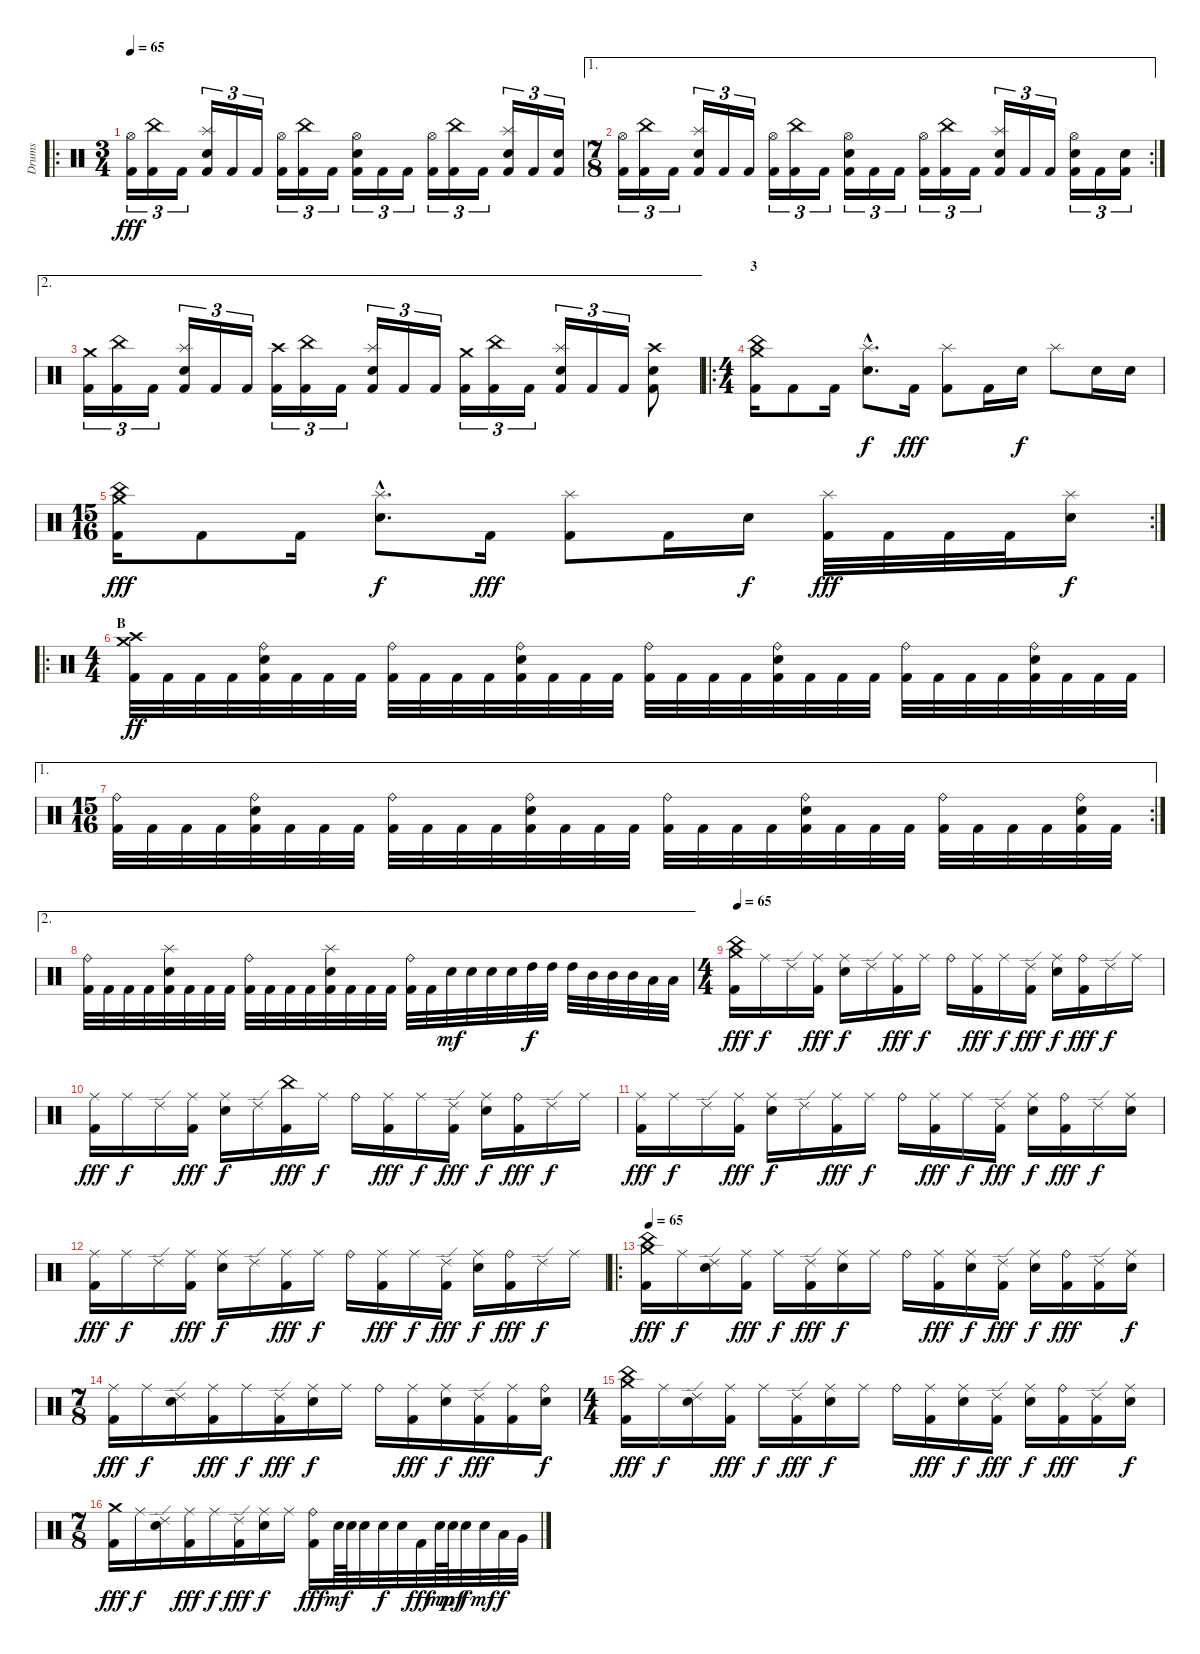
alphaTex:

\track ("Drums" "Drums") {instrument percussion}
\staff {score}
\articulation defaults
\ro
\ts (3 4)
\tempo 65
\clef neutral
\ks c
("Hi-Hat (open)" "Kick (hit) 2").16{tu (3 2) dy fff} ("China (hit)" "Kick (hit) 2").16{tu (3 2)} "Kick (hit) 2".16{tu (3 2)} ("Splash (hit)" "Electric Snare (hit)" "Kick (hit) 2").16{tu (3 2)} "Kick (hit) 2".16{tu (3 2)} "Kick (hit) 2".16{tu (3 2)} ("Hi-Hat (open)" "Kick (hit) 2").16{tu (3 2)} ("China (hit)" "Kick (hit) 2").16{tu (3 2)} "Kick (hit) 2".16{tu (3 2)} ("Hi-Hat (open)" "Electric Snare (hit)" "Kick (hit) 2").16{tu (3 2)} "Kick (hit) 2".16{tu (3 2)} "Kick (hit) 2".16{tu (3 2)} ("Hi-Hat (open)" "Kick (hit) 2").16{tu (3 2)} ("China (hit)" "Kick (hit) 2").16{tu (3 2)} "Kick (hit) 2".16{tu (3 2)} ("Splash (hit)" "Electric Snare (hit)" "Kick (hit) 2").16{tu (3 2)} "Kick (hit) 2".16{tu (3 2)} ("Electric Snare (hit)" "Kick (hit) 2").16{tu (3 2)} |
\ae 1
\rc 2
\ts (7 8)
("Hi-Hat (open)" "Kick (hit) 2").16{tu (3 2)} ("China (hit)" "Kick (hit) 2").16{tu (3 2)} "Kick (hit) 2".16{tu (3 2)} ("Splash (hit)" "Electric Snare (hit)" "Kick (hit) 2").16{tu (3 2)} "Kick (hit) 2".16{tu (3 2)} "Kick (hit) 2".16{tu (3 2)} ("Hi-Hat (open)" "Kick (hit) 2").16{tu (3 2)} ("China (hit)" "Kick (hit) 2").16{tu (3 2)} "Kick (hit) 2".16{tu (3 2)} ("Hi-Hat (open)" "Electric Snare (hit)" "Kick (hit) 2").16{tu (3 2)} "Kick (hit) 2".16{tu (3 2)} "Kick (hit) 2".16{tu (3 2)} ("Hi-Hat (open)" "Kick (hit) 2").16{tu (3 2)} ("China (hit)" "Kick (hit) 2").16{tu (3 2)} "Kick (hit) 2".16{tu (3 2)} ("Splash (hit)" "Electric Snare (hit)" "Kick (hit) 2").16{tu (3 2)} "Kick (hit) 2".16{tu (3 2)} "Kick (hit) 2".16{tu (3 2)} ("Hi-Hat (open)" "Electric Snare (hit)" "Kick (hit) 2").16{tu (3 2)} "Kick (hit) 2".16{tu (3 2)} ("Electric Snare (hit)" "Kick (hit) 2").16{tu (3 2)} |
\ae 2
("Crash medium (hit)" "Kick (hit) 2").16{tu (3 2)} ("China (hit)" "Kick (hit) 2").16{tu (3 2)} "Kick (hit) 2".16{tu (3 2)} ("Splash (hit)" "Electric Snare (hit)" "Kick (hit) 2").16{tu (3 2)} "Kick (hit) 2".16{tu (3 2)} "Kick (hit) 2".16{tu (3 2)} ("Crash high (hit)" "Kick (hit) 2").16{tu (3 2)} ("China (hit)" "Kick (hit) 2").16{tu (3 2)} "Kick (hit) 2".16{tu (3 2)} ("Splash (hit)" "Electric Snare (hit)" "Kick (hit) 2").16{tu (3 2)} "Kick (hit) 2".16{tu (3 2)} "Kick (hit) 2".16{tu (3 2)} ("Crash medium (hit)" "Kick (hit) 2").16{tu (3 2)} ("China (hit)" "Kick (hit) 2").16{tu (3 2)} "Kick (hit) 2".16{tu (3 2)} ("Splash (hit)" "Electric Snare (hit)" "Kick (hit) 2").16{tu (3 2)} "Kick (hit) 2".16{tu (3 2)} "Kick (hit) 2".16{tu (3 2)} ("Crash high (hit)" "Electric Snare (hit)" "Kick (hit) 2").8 |
\ro
\ts (4 4)
\section ("" "3")
("Crash medium (hit)" "China (hit)" "Kick (hit) 2").16 "Kick (hit) 2".8 "Kick (hit) 2".16 ("Splash (hit)"{hac} "Electric Snare (hit)"{hac}).8{d dy f} "Kick (hit) 2".16{dy fff} ("Splash (hit)" "Kick (hit) 2").8 "Kick (hit) 2".16 "Electric Snare (hit)".16{dy f} "Splash (hit)".8 "Electric Snare (hit)".16 "Electric Snare (hit)".16 |
\rc 2
\ts (15 16)
("Crash medium (hit)" "China (hit)" "Kick (hit) 2").16{dy fff} "Kick (hit) 2".8 "Kick (hit) 2".16 ("Splash (hit)"{hac} "Electric Snare (hit)"{hac}).8{d dy f} "Kick (hit) 2".16{dy fff} ("Splash (hit)" "Kick (hit) 2").8 "Kick (hit) 2".16 "Electric Snare (hit)".16{dy f} ("Splash (hit)" "Kick (hit) 2").32{dy fff} "Kick (hit) 2".32 "Kick (hit) 2".32 "Kick (hit) 2".32 ("Splash (hit)" "Electric Snare (hit)").16{dy f} |
\ro
\ts (4 4)
\section ("" "B")
("Crash medium (hit)" "Crash high (hit)" "Kick (hit) 2").32{dy ff} "Kick (hit) 2".32 "Kick (hit) 2".32 "Kick (hit) 2".32 ("Ride (bell)" "Electric Snare (hit)" "Kick (hit) 2").32 "Kick (hit) 2".32 "Kick (hit) 2".32 "Kick (hit) 2".32 ("Ride (bell)" "Kick (hit) 2").32 "Kick (hit) 2".32 "Kick (hit) 2".32 "Kick (hit) 2".32 ("Ride (bell)" "Electric Snare (hit)" "Kick (hit) 2").32 "Kick (hit) 2".32 "Kick (hit) 2".32 "Kick (hit) 2".32 ("Ride (bell)" "Kick (hit) 2").32 "Kick (hit) 2".32 "Kick (hit) 2".32 "Kick (hit) 2".32 ("Ride (bell)" "Electric Snare (hit)" "Kick (hit) 2").32 "Kick (hit) 2".32 "Kick (hit) 2".32 "Kick (hit) 2".32 ("Ride (bell)" "Kick (hit) 2").32 "Kick (hit) 2".32 "Kick (hit) 2".32 "Kick (hit) 2".32 ("Ride (bell)" "Electric Snare (hit)" "Kick (hit) 2").32 "Kick (hit) 2".32 "Kick (hit) 2".32 "Kick (hit) 2".32 |
\ae 1
\rc 2
\ts (15 16)
("Ride (bell)" "Kick (hit) 2").32 "Kick (hit) 2".32 "Kick (hit) 2".32 "Kick (hit) 2".32 ("Ride (bell)" "Electric Snare (hit)" "Kick (hit) 2").32 "Kick (hit) 2".32 "Kick (hit) 2".32 "Kick (hit) 2".32 ("Ride (bell)" "Kick (hit) 2").32 "Kick (hit) 2".32 "Kick (hit) 2".32 "Kick (hit) 2".32 ("Ride (bell)" "Electric Snare (hit)" "Kick (hit) 2").32 "Kick (hit) 2".32 "Kick (hit) 2".32 "Kick (hit) 2".32 ("Ride (bell)" "Kick (hit) 2").32 "Kick (hit) 2".32 "Kick (hit) 2".32 "Kick (hit) 2".32 ("Ride (bell)" "Electric Snare (hit)" "Kick (hit) 2").32 "Kick (hit) 2".32 "Kick (hit) 2".32 "Kick (hit) 2".32 ("Ride (bell)" "Kick (hit) 2").32 "Kick (hit) 2".32 "Kick (hit) 2".32 "Kick (hit) 2".32 ("Ride (bell)" "Electric Snare (hit)" "Kick (hit) 2").32 "Kick (hit) 2".32 |
\ae 2
("Ride (bell)" "Kick (hit) 2").32 "Kick (hit) 2".32 "Kick (hit) 2".32 "Kick (hit) 2".32 ("Splash (hit)" "Electric Snare (hit)" "Kick (hit) 2").32 "Kick (hit) 2".32 "Kick (hit) 2".32 "Kick (hit) 2".32 ("Ride (bell)" "Kick (hit) 2").32 "Kick (hit) 2".32 "Kick (hit) 2".32 "Kick (hit) 2".32 ("Splash (hit)" "Electric Snare (hit)" "Kick (hit) 2").32 "Kick (hit) 2".32 "Kick (hit) 2".32 "Kick (hit) 2".32 ("Ride (bell)" "Kick (hit) 2").32 "Kick (hit) 2".32 "Electric Snare (hit)".32{dy mf} "Electric Snare (hit)".32 "Electric Snare (hit)".32 "Electric Snare (hit)".32 "High Tom (hit)".32{dy f} "High Tom (hit)".32 "High Tom (hit)".32 "Mid Tom (hit)".32 "Mid Tom (hit)".32 "Mid Tom (hit)".32 "Low Tom (hit)".32 "Low Tom (hit)".32 |
\ts (4 4)
\tempo 65
("China (hit)" "Crash medium (hit)" "Kick (hit) 2").16{dy fff} "Ride (middle)".16{dy f} "Ride (edge) 2".16 ("Ride (middle)" "Kick (hit) 2").16{dy fff} ("Ride (middle)" "Electric Snare (hit)").16{dy f} "Ride (edge) 2".16 ("Ride (middle)" "Kick (hit) 2").16{dy fff} "Ride (middle)".16{dy f} "Ride (bell)".16 ("Ride (middle)" "Kick (hit) 2").16{dy fff} "Ride (middle)".16{dy f} ("Ride (edge) 2" "Kick (hit) 2").16{dy fff} ("Ride (middle)" "Electric Snare (hit)").16{dy f} ("Ride (bell)" "Kick (hit) 2").16{dy fff} "Ride (edge) 2".16{dy f} "Ride (middle)".16 |
("Ride (middle)" "Kick (hit) 2").16{dy fff} "Ride (middle)".16{dy f} "Ride (edge) 2".16 ("Ride (middle)" "Kick (hit) 2").16{dy fff} ("Ride (middle)" "Electric Snare (hit)").16{dy f} "Ride (edge) 2".16 ("China (hit)" "Kick (hit) 2").16{dy fff} "Ride (middle)".16{dy f} "Ride (bell)".16 ("Ride (middle)" "Kick (hit) 2").16{dy fff} "Ride (middle)".16{dy f} ("Ride (edge) 2" "Kick (hit) 2").16{dy fff} ("Ride (middle)" "Electric Snare (hit)").16{dy f} ("Ride (bell)" "Kick (hit) 2").16{dy fff} "Ride (edge) 2".16{dy f} "Ride (middle)".16 |
("Ride (middle)" "Kick (hit) 2").16{dy fff} "Ride (middle)".16{dy f} "Ride (edge) 2".16 ("Ride (middle)" "Kick (hit) 2").16{dy fff} ("Ride (middle)" "Electric Snare (hit)").16{dy f} "Ride (edge) 2".16 ("Ride (middle)" "Kick (hit) 2").16{dy fff} "Ride (middle)".16{dy f} "Ride (bell)".16 ("Ride (middle)" "Kick (hit) 2").16{dy fff} "Ride (middle)".16{dy f} ("Ride (edge) 2" "Kick (hit) 2").16{dy fff} ("Ride (middle)" "Electric Snare (hit)").16{dy f} ("Ride (bell)" "Kick (hit) 2").16{dy fff} "Ride (edge) 2".16{dy f} ("Ride (middle)" "Electric Snare (hit)").16 |
("Ride (middle)" "Kick (hit) 2").16{dy fff} "Ride (middle)".16{dy f} "Ride (edge) 2".16 ("Ride (middle)" "Kick (hit) 2").16{dy fff} ("Ride (middle)" "Electric Snare (hit)").16{dy f} "Ride (edge) 2".16 ("Ride (middle)" "Kick (hit) 2").16{dy fff} "Ride (middle)".16{dy f} "Ride (bell)".16 ("Ride (middle)" "Kick (hit) 2").16{dy fff} "Ride (middle)".16{dy f} ("Ride (edge) 2" "Kick (hit) 2").16{dy fff} ("Ride (middle)" "Electric Snare (hit)").16{dy f} ("Ride (bell)" "Kick (hit) 2").16{dy fff} "Ride (edge) 2".16{dy f} "Ride (middle)".16 |
\ro
\tempo 65
("China (hit)" "Crash medium (hit)" "Kick (hit) 2").16{dy fff} "Ride (middle)".16{dy f} ("Ride (edge) 2" "Electric Snare (hit)").16 ("Ride (middle)" "Kick (hit) 2").16{dy fff} "Ride (middle)".16{dy f} ("Ride (edge) 2" "Kick (hit) 2").16{dy fff} ("Ride (middle)" "Electric Snare (hit)").16{dy f} "Ride (middle)".16 "Ride (bell)".16 ("Ride (middle)" "Kick (hit) 2").16{dy fff} ("Ride (middle)" "Electric Snare (hit)").16{dy f} ("Ride (edge) 2" "Kick (hit) 2").16{dy fff} ("Ride (middle)" "Electric Snare (hit)").16{dy f} ("Ride (bell)" "Kick (hit) 2").16{dy fff} ("Ride (edge) 2" "Kick (hit) 2").16 ("Ride (middle)" "Electric Snare (hit)").16{dy f} |
\ts (7 8)
("Ride (middle)" "Kick (hit) 2").16{dy fff} "Ride (middle)".16{dy f} ("Ride (edge) 2" "Electric Snare (hit)").16 ("Ride (middle)" "Kick (hit) 2").16{dy fff} "Ride (middle)".16{dy f} ("Ride (edge) 2" "Kick (hit) 2").16{dy fff} ("Ride (middle)" "Electric Snare (hit)").16{dy f} "Ride (middle)".16 "Ride (bell)".16 ("Ride (middle)" "Kick (hit) 2").16{dy fff} ("Ride (middle)" "Electric Snare (hit)").16{dy f} ("Ride (edge) 2" "Kick (hit) 2").16{dy fff} ("Ride (middle)" "Kick (hit) 2").16 ("Ride (bell)" "Electric Snare (hit)").16{dy f} |
\ts (4 4)
("China (hit)" "Crash medium (hit)" "Kick (hit) 2").16{dy fff} "Ride (middle)".16{dy f} ("Ride (edge) 2" "Electric Snare (hit)").16 ("Ride (middle)" "Kick (hit) 2").16{dy fff} "Ride (middle)".16{dy f} ("Ride (edge) 2" "Kick (hit) 2").16{dy fff} ("Ride (middle)" "Electric Snare (hit)").16{dy f} "Ride (middle)".16 "Ride (bell)".16 ("Ride (middle)" "Kick (hit) 2").16{dy fff} ("Ride (middle)" "Electric Snare (hit)").16{dy f} ("Ride (edge) 2" "Kick (hit) 2").16{dy fff} ("Ride (middle)" "Electric Snare (hit)").16{dy f} ("Ride (bell)" "Kick (hit) 2").16{dy fff} ("Ride (edge) 2" "Kick (hit) 2").16 ("Ride (middle)" "Electric Snare (hit)").16{dy f} |
\ts (7 8)
("Crash medium (hit)" "Kick (hit) 2").16{dy fff} "Ride (middle)".16{dy f} ("Ride (edge) 2" "Electric Snare (hit)").16 ("Ride (middle)" "Kick (hit) 2").16{dy fff} "Ride (middle)".16{dy f} ("Ride (edge) 2" "Kick (hit) 2").16{dy fff} ("Ride (middle)" "Electric Snare (hit)").16{dy f} "Ride (middle)".16 ("Ride (bell)" "Kick (hit) 2").16{dy fff} "Electric Snare (hit)".64{dy mf} "Electric Snare (hit)".64 "Electric Snare (hit)".32 "Electric Snare (hit)".32{dy f} "Electric Snare (hit)".32 "Kick (hit) 2".32{dy fff} "Electric Snare (hit)".64{dy mp} "Electric Snare (hit)".64{dy mf} "Electric Snare (hit)".32{dy f} "Electric Snare (hit)".32{dy mf} "Low Tom (hit)".32{dy f} "Very Low Tom (hit)".32
